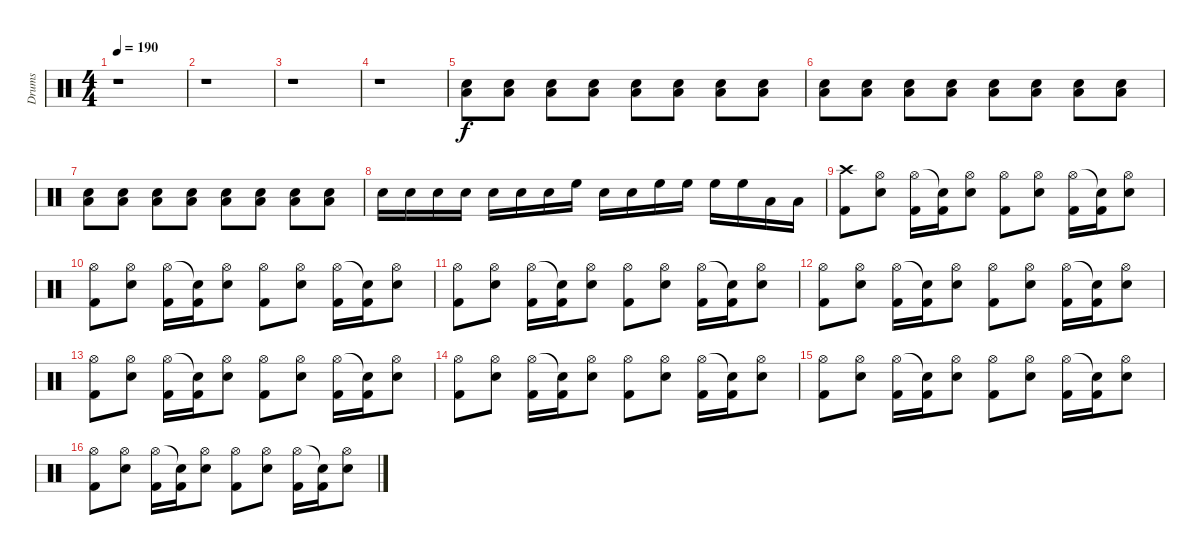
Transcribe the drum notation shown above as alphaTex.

\track ("Drums" "Drums") {instrument percussion}
\staff {score}
\articulation defaults
\ts (4 4)
\tempo 190
\clef neutral
\ks c
r.1{dy f} |
r.1 |
r.1 |
r.1 |
("Snare (hit) 2" "Low Floor Tom (hit)").8 ("Snare (hit) 2" "Low Floor Tom (hit)").8 ("Snare (hit) 2" "Low Floor Tom (hit)").8 ("Snare (hit) 2" "Low Floor Tom (hit)").8 ("Snare (hit) 2" "Low Floor Tom (hit)").8 ("Snare (hit) 2" "Low Floor Tom (hit)").8 ("Snare (hit) 2" "Low Floor Tom (hit)").8 ("Snare (hit) 2" "Low Floor Tom (hit)").8 |
("Snare (hit) 2" "Low Floor Tom (hit)").8 ("Snare (hit) 2" "Low Floor Tom (hit)").8 ("Snare (hit) 2" "Low Floor Tom (hit)").8 ("Snare (hit) 2" "Low Floor Tom (hit)").8 ("Snare (hit) 2" "Low Floor Tom (hit)").8 ("Snare (hit) 2" "Low Floor Tom (hit)").8 ("Snare (hit) 2" "Low Floor Tom (hit)").8 ("Snare (hit) 2" "Low Floor Tom (hit)").8 |
("Snare (hit) 2" "Low Floor Tom (hit)").8 ("Snare (hit) 2" "Low Floor Tom (hit)").8 ("Snare (hit) 2" "Low Floor Tom (hit)").8 ("Snare (hit) 2" "Low Floor Tom (hit)").8 ("Snare (hit) 2" "Low Floor Tom (hit)").8 ("Snare (hit) 2" "Low Floor Tom (hit)").8 ("Snare (hit) 2" "Low Floor Tom (hit)").8 ("Snare (hit) 2" "Low Floor Tom (hit)").8 |
"Snare (hit) 2".16 "Snare (hit) 2".16 "Snare (hit) 2".16 "Snare (hit) 2".16 "Snare (hit) 2".16 "Snare (hit) 2".16 "Snare (hit) 2".16 "High Floor Tom (hit)".16 "Snare (hit) 2".16 "Snare (hit) 2".16 "High Floor Tom (hit)".16 "High Floor Tom (hit)".16 "High Floor Tom (hit)".16 "High Floor Tom (hit)".16 "Low Tom (hit)".16 "Low Tom (hit)".16 |
("Crash high (hit)" "Kick (hit) 2").8 ("Hi-Hat (open)" "Snare (hit) 2").8 ("Hi-Hat (open)" "Kick (hit) 2").16 ("Snare (hit)"{t} "Kick (hit) 2").16 ("Hi-Hat (open)" "Snare (hit) 2").8 ("Hi-Hat (open)" "Kick (hit) 2").8 ("Hi-Hat (open)" "Snare (hit) 2").8 ("Hi-Hat (open)" "Kick (hit) 2").16 ("Snare (hit)"{t} "Kick (hit) 2").16 ("Hi-Hat (open)" "Snare (hit) 2").8 |
("Hi-Hat (open)" "Kick (hit) 2").8 ("Hi-Hat (open)" "Snare (hit) 2").8 ("Hi-Hat (open)" "Kick (hit) 2").16 ("Snare (hit)"{t} "Kick (hit) 2").16 ("Hi-Hat (open)" "Snare (hit) 2").8 ("Hi-Hat (open)" "Kick (hit) 2").8 ("Hi-Hat (open)" "Snare (hit) 2").8 ("Hi-Hat (open)" "Kick (hit) 2").16 ("Snare (hit)"{t} "Kick (hit) 2").16 ("Hi-Hat (open)" "Snare (hit) 2").8 |
("Hi-Hat (open)" "Kick (hit) 2").8 ("Hi-Hat (open)" "Snare (hit) 2").8 ("Hi-Hat (open)" "Kick (hit) 2").16 ("Snare (hit)"{t} "Kick (hit) 2").16 ("Hi-Hat (open)" "Snare (hit) 2").8 ("Hi-Hat (open)" "Kick (hit) 2").8 ("Hi-Hat (open)" "Snare (hit) 2").8 ("Hi-Hat (open)" "Kick (hit) 2").16 ("Snare (hit)"{t} "Kick (hit) 2").16 ("Hi-Hat (open)" "Snare (hit) 2").8 |
("Hi-Hat (open)" "Kick (hit) 2").8 ("Hi-Hat (open)" "Snare (hit) 2").8 ("Hi-Hat (open)" "Kick (hit) 2").16 ("Snare (hit)"{t} "Kick (hit) 2").16 ("Hi-Hat (open)" "Snare (hit) 2").8 ("Hi-Hat (open)" "Kick (hit) 2").8 ("Hi-Hat (open)" "Snare (hit) 2").8 ("Hi-Hat (open)" "Kick (hit) 2").16 ("Snare (hit)"{t} "Kick (hit) 2").16 ("Hi-Hat (open)" "Snare (hit) 2").8 |
("Hi-Hat (open)" "Kick (hit) 2").8 ("Hi-Hat (open)" "Snare (hit) 2").8 ("Hi-Hat (open)" "Kick (hit) 2").16 ("Snare (hit)"{t} "Kick (hit) 2").16 ("Hi-Hat (open)" "Snare (hit) 2").8 ("Hi-Hat (open)" "Kick (hit) 2").8 ("Hi-Hat (open)" "Snare (hit) 2").8 ("Hi-Hat (open)" "Kick (hit) 2").16 ("Snare (hit)"{t} "Kick (hit) 2").16 ("Hi-Hat (open)" "Snare (hit) 2").8 |
("Hi-Hat (open)" "Kick (hit) 2").8 ("Hi-Hat (open)" "Snare (hit) 2").8 ("Hi-Hat (open)" "Kick (hit) 2").16 ("Snare (hit)"{t} "Kick (hit) 2").16 ("Hi-Hat (open)" "Snare (hit) 2").8 ("Hi-Hat (open)" "Kick (hit) 2").8 ("Hi-Hat (open)" "Snare (hit) 2").8 ("Hi-Hat (open)" "Kick (hit) 2").16 ("Snare (hit)"{t} "Kick (hit) 2").16 ("Hi-Hat (open)" "Snare (hit) 2").8 |
("Hi-Hat (open)" "Kick (hit) 2").8 ("Hi-Hat (open)" "Snare (hit) 2").8 ("Hi-Hat (open)" "Kick (hit) 2").16 ("Snare (hit)"{t} "Kick (hit) 2").16 ("Hi-Hat (open)" "Snare (hit) 2").8 ("Hi-Hat (open)" "Kick (hit) 2").8 ("Hi-Hat (open)" "Snare (hit) 2").8 ("Hi-Hat (open)" "Kick (hit) 2").16 ("Snare (hit)"{t} "Kick (hit) 2").16 ("Hi-Hat (open)" "Snare (hit) 2").8 |
("Hi-Hat (open)" "Kick (hit) 2").8 ("Hi-Hat (open)" "Snare (hit) 2").8 ("Hi-Hat (open)" "Kick (hit) 2").16 ("Snare (hit)"{t} "Kick (hit) 2").16 ("Hi-Hat (open)" "Snare (hit) 2").8 ("Hi-Hat (open)" "Kick (hit) 2").8 ("Hi-Hat (open)" "Snare (hit) 2").8 ("Hi-Hat (open)" "Kick (hit) 2").16 ("Snare (hit)"{t} "Kick (hit) 2").16 ("Hi-Hat (open)" "Snare (hit) 2").8
